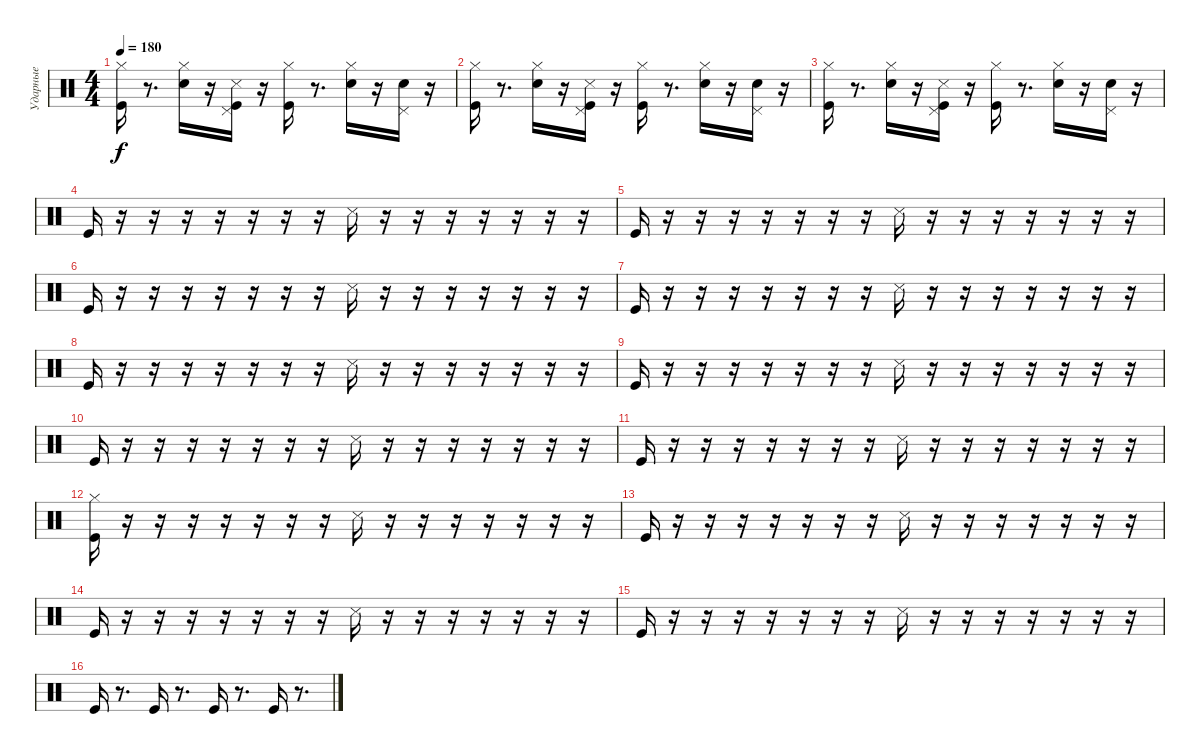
\track ("Ударные" "Ударные") {instrument percussion}
\staff {score}
\articulation defaults
\ts (4 4)
\tempo 180
\clef neutral
\ks c
("Hi-Hat (closed)" "Kick (hit)").16{dy f} r.8{d} ("Hi-Hat (closed)" "Snare (hit) 2").16 r.16 ("Snare (side stick) 3" "Kick (hit)" "Pedal Hi-Hat (hit)").16 r.16 ("Hi-Hat (closed)" "Kick (hit)").16 r.8{d} ("Hi-Hat (closed)" "Snare (hit) 2").16 r.16 ("Snare (hit) 2" "Pedal Hi-Hat (hit)").16 r.16 |
("Hi-Hat (closed)" "Kick (hit)").16 r.8{d} ("Hi-Hat (closed)" "Snare (hit) 2").16 r.16 ("Snare (side stick) 3" "Kick (hit)" "Pedal Hi-Hat (hit)").16 r.16 ("Hi-Hat (closed)" "Kick (hit)").16 r.8{d} ("Hi-Hat (closed)" "Snare (hit) 2").16 r.16 ("Snare (hit) 2" "Pedal Hi-Hat (hit)").16 r.16 |
("Hi-Hat (closed)" "Kick (hit)").16 r.8{d} ("Hi-Hat (closed)" "Snare (hit) 2").16 r.16 ("Snare (side stick) 3" "Kick (hit)" "Pedal Hi-Hat (hit)").16 r.16 ("Hi-Hat (closed)" "Kick (hit)").16 r.8{d} ("Hi-Hat (closed)" "Snare (hit) 2").16 r.16 ("Snare (hit) 2" "Pedal Hi-Hat (hit)").16 r.16 |
"Kick (hit)".16 r.16 r.16 r.16 r.16 r.16 r.16 r.16 "Snare (side stick) 3".16 r.16 r.16 r.16 r.16 r.16 r.16 r.16 |
"Kick (hit)".16 r.16 r.16 r.16 r.16 r.16 r.16 r.16 "Snare (side stick) 3".16 r.16 r.16 r.16 r.16 r.16 r.16 r.16 |
"Kick (hit)".16 r.16 r.16 r.16 r.16 r.16 r.16 r.16 "Snare (side stick) 3".16 r.16 r.16 r.16 r.16 r.16 r.16 r.16 |
"Kick (hit)".16 r.16 r.16 r.16 r.16 r.16 r.16 r.16 "Snare (side stick) 3".16 r.16 r.16 r.16 r.16 r.16 r.16 r.16 |
"Kick (hit)".16 r.16 r.16 r.16 r.16 r.16 r.16 r.16 "Snare (side stick) 3".16 r.16 r.16 r.16 r.16 r.16 r.16 r.16 |
"Kick (hit)".16 r.16 r.16 r.16 r.16 r.16 r.16 r.16 "Snare (side stick) 3".16 r.16 r.16 r.16 r.16 r.16 r.16 r.16 |
"Kick (hit)".16 r.16 r.16 r.16 r.16 r.16 r.16 r.16 "Snare (side stick) 3".16 r.16 r.16 r.16 r.16 r.16 r.16 r.16 |
"Kick (hit)".16 r.16 r.16 r.16 r.16 r.16 r.16 r.16 "Snare (side stick) 3".16 r.16 r.16 r.16 r.16 r.16 r.16 r.16 |
("Kick (hit)" "Hi-Hat (closed)").16 r.16 r.16 r.16 r.16 r.16 r.16 r.16 "Snare (side stick) 3".16 r.16 r.16 r.16 r.16 r.16 r.16 r.16 |
"Kick (hit)".16 r.16 r.16 r.16 r.16 r.16 r.16 r.16 "Snare (side stick) 3".16 r.16 r.16 r.16 r.16 r.16 r.16 r.16 |
"Kick (hit)".16 r.16 r.16 r.16 r.16 r.16 r.16 r.16 "Snare (side stick) 3".16 r.16 r.16 r.16 r.16 r.16 r.16 r.16 |
"Kick (hit)".16 r.16 r.16 r.16 r.16 r.16 r.16 r.16 "Snare (side stick) 3".16 r.16 r.16 r.16 r.16 r.16 r.16 r.16 |
"Kick (hit)".16 r.8{d} "Kick (hit)".16 r.8{d} "Kick (hit)".16 r.8{d} "Kick (hit)".16 r.8{d}
